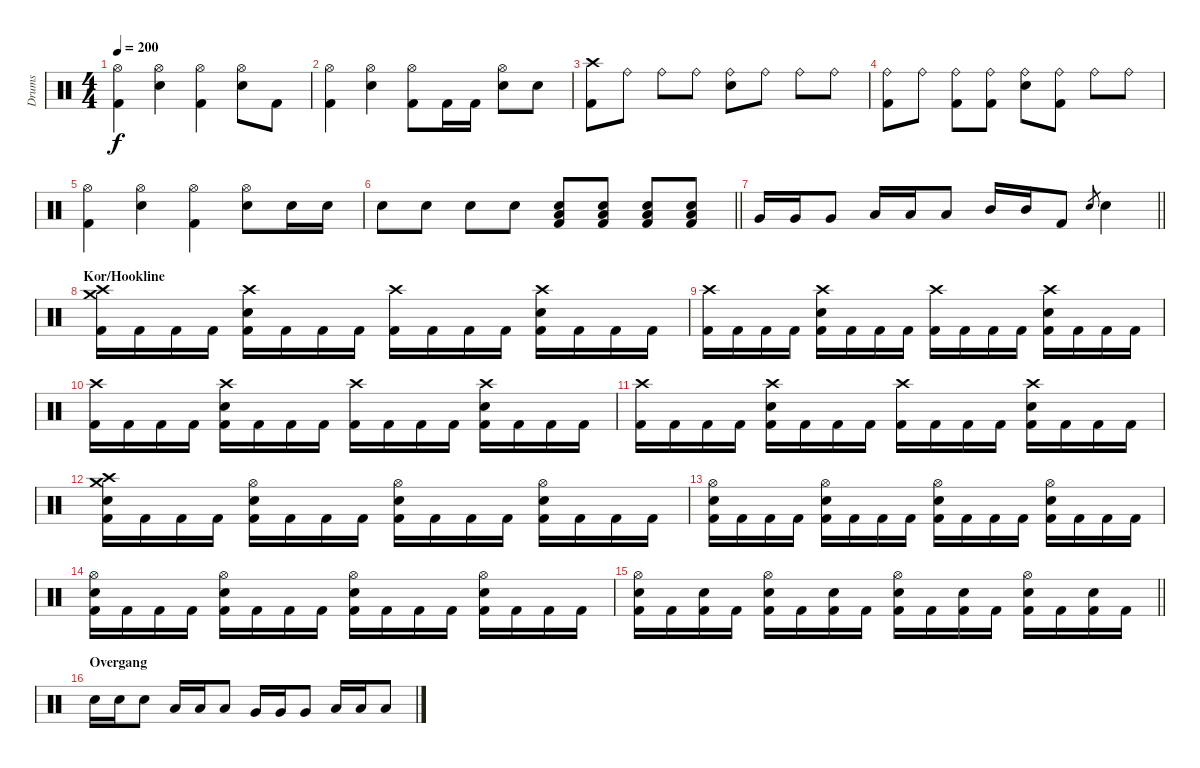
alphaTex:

\track ("Drums" "Drums") {instrument percussion}
\staff {score}
\articulation defaults
\ts (4 4)
\tempo 200
\clef neutral
\ks c
("Hi-Hat (open)" "Kick (hit) 2").4{dy f} ("Hi-Hat (open)" "Snare (hit) 2").4 ("Hi-Hat (open)" "Kick (hit) 2").4 ("Hi-Hat (open)" "Snare (hit) 2").8 "Kick (hit) 2".8 |
("Hi-Hat (open)" "Kick (hit) 2").4 ("Hi-Hat (open)" "Snare (hit) 2").4 ("Hi-Hat (open)" "Kick (hit) 2").8 "Kick (hit) 2".16 "Kick (hit) 2".16 ("Hi-Hat (open)" "Snare (hit) 2").8 "Snare (hit) 2".8 |
("Crash high (hit)" "Kick (hit) 2").8 "Ride (bell)".8 "Ride (bell)".8 "Ride (bell)".8 ("Ride (bell)" "Snare (hit) 2").8 "Ride (bell)".8 "Ride (bell)".8 "Ride (bell)".8 |
("Ride (bell)" "Kick (hit) 2").8 "Ride (bell)".8 ("Ride (bell)" "Kick (hit) 2").8 ("Ride (bell)" "Kick (hit) 2").8 ("Ride (bell)" "Snare (hit) 2").8 ("Ride (bell)" "Kick (hit) 2").8 "Ride (bell)".8 "Ride (bell)".8 |
("Hi-Hat (open)" "Kick (hit) 2").4 ("Hi-Hat (open)" "Snare (hit) 2").4 ("Hi-Hat (open)" "Kick (hit) 2").4 ("Hi-Hat (open)" "Snare (hit) 2").8 "Snare (hit) 2".16 "Snare (hit) 2".16 |
\barLineRight lightlight "Snare (hit) 2".8 "Snare (hit) 2".8 "Snare (hit) 2".8 "Snare (hit) 2".8
("Low Floor Tom (hit)" "Snare (hit) 2" "Kick (hit) 2").8 ("Low Floor Tom (hit)" "Snare (hit) 2" "Kick (hit) 2").8 ("Low Floor Tom (hit)" "Snare (hit) 2" "Kick (hit) 2").8 ("Low Floor Tom (hit)" "Snare (hit) 2" "Kick (hit) 2").8 |
\barLineRight lightlight "Very Low Tom (hit)".16 "Very Low Tom (hit)".16 "Very Low Tom (hit)".8 "Low Tom (hit)".16 "Low Tom (hit)".16 "Low Tom (hit)".8 "Mid Tom (hit)".16 "Mid Tom (hit)".16 "Kick (hit) 2".8 "Snare (hit) 2".8{gr} "Snare (hit) 2".4
|
\section ("" "Kor/Hookline")
("Crash medium (hit)" "Crash high (hit)" "Kick (hit) 2").16 "Kick (hit) 2".16 "Kick (hit) 2".16 "Kick (hit) 2".16 ("Crash high (hit)" "Snare (hit) 2" "Kick (hit) 2").16 "Kick (hit) 2".16 "Kick (hit) 2".16 "Kick (hit) 2".16 ("Crash high (hit)" "Kick (hit) 2").16 "Kick (hit) 2".16 "Kick (hit) 2".16 "Kick (hit) 2".16 ("Crash high (hit)" "Snare (hit) 2" "Kick (hit) 2").16 "Kick (hit) 2".16 "Kick (hit) 2".16 "Kick (hit) 2".16 |
("Crash high (hit)" "Kick (hit) 2").16 "Kick (hit) 2".16 "Kick (hit) 2".16 "Kick (hit) 2".16 ("Crash high (hit)" "Snare (hit) 2" "Kick (hit) 2").16 "Kick (hit) 2".16 "Kick (hit) 2".16 "Kick (hit) 2".16 ("Crash high (hit)" "Kick (hit) 2").16 "Kick (hit) 2".16 "Kick (hit) 2".16 "Kick (hit) 2".16 ("Crash high (hit)" "Snare (hit) 2" "Kick (hit) 2").16 "Kick (hit) 2".16 "Kick (hit) 2".16 "Kick (hit) 2".16 |
("Crash high (hit)" "Kick (hit) 2").16 "Kick (hit) 2".16 "Kick (hit) 2".16 "Kick (hit) 2".16 ("Crash high (hit)" "Snare (hit) 2" "Kick (hit) 2").16 "Kick (hit) 2".16 "Kick (hit) 2".16 "Kick (hit) 2".16 ("Crash high (hit)" "Kick (hit) 2").16 "Kick (hit) 2".16 "Kick (hit) 2".16 "Kick (hit) 2".16 ("Crash high (hit)" "Snare (hit) 2" "Kick (hit) 2").16 "Kick (hit) 2".16 "Kick (hit) 2".16 "Kick (hit) 2".16 |
("Crash high (hit)" "Kick (hit) 2").16 "Kick (hit) 2".16 "Kick (hit) 2".16 "Kick (hit) 2".16 ("Crash high (hit)" "Snare (hit) 2" "Kick (hit) 2").16 "Kick (hit) 2".16 "Kick (hit) 2".16 "Kick (hit) 2".16 ("Crash high (hit)" "Kick (hit) 2").16 "Kick (hit) 2".16 "Kick (hit) 2".16 "Kick (hit) 2".16 ("Crash high (hit)" "Snare (hit) 2" "Kick (hit) 2").16 "Kick (hit) 2".16 "Kick (hit) 2".16 "Kick (hit) 2".16 |
("Crash medium (hit)" "Crash high (hit)" "Snare (hit) 2" "Kick (hit) 2").16 "Kick (hit) 2".16 "Kick (hit) 2".16 "Kick (hit) 2".16 ("Hi-Hat (open)" "Snare (hit) 2" "Kick (hit) 2").16 "Kick (hit) 2".16 "Kick (hit) 2".16 "Kick (hit) 2".16 ("Hi-Hat (open)" "Snare (hit) 2" "Kick (hit) 2").16 "Kick (hit) 2".16 "Kick (hit) 2".16 "Kick (hit) 2".16 ("Hi-Hat (open)" "Snare (hit) 2" "Kick (hit) 2").16 "Kick (hit) 2".16 "Kick (hit) 2".16 "Kick (hit) 2".16 |
("Hi-Hat (open)" "Snare (hit) 2" "Kick (hit) 2").16 "Kick (hit) 2".16 "Kick (hit) 2".16 "Kick (hit) 2".16 ("Hi-Hat (open)" "Snare (hit) 2" "Kick (hit) 2").16 "Kick (hit) 2".16 "Kick (hit) 2".16 "Kick (hit) 2".16 ("Hi-Hat (open)" "Snare (hit) 2" "Kick (hit) 2").16 "Kick (hit) 2".16 "Kick (hit) 2".16 "Kick (hit) 2".16 ("Hi-Hat (open)" "Snare (hit) 2" "Kick (hit) 2").16 "Kick (hit) 2".16 "Kick (hit) 2".16 "Kick (hit) 2".16 |
("Hi-Hat (open)" "Snare (hit) 2" "Kick (hit) 2").16 "Kick (hit) 2".16 "Kick (hit) 2".16 "Kick (hit) 2".16 ("Hi-Hat (open)" "Snare (hit) 2" "Kick (hit) 2").16 "Kick (hit) 2".16 "Kick (hit) 2".16 "Kick (hit) 2".16 ("Hi-Hat (open)" "Snare (hit) 2" "Kick (hit) 2").16 "Kick (hit) 2".16 "Kick (hit) 2".16 "Kick (hit) 2".16 ("Hi-Hat (open)" "Snare (hit) 2" "Kick (hit) 2").16 "Kick (hit) 2".16 "Kick (hit) 2".16 "Kick (hit) 2".16 |
\barLineRight lightlight
("Hi-Hat (open)" "Snare (hit) 2" "Kick (hit) 2").16 "Kick (hit) 2".16 ("Snare (hit) 2" "Kick (hit) 2").16 "Kick (hit) 2".16 ("Hi-Hat (open)" "Snare (hit) 2" "Kick (hit) 2").16 "Kick (hit) 2".16 ("Snare (hit) 2" "Kick (hit) 2").16 "Kick (hit) 2".16 ("Hi-Hat (open)" "Snare (hit) 2" "Kick (hit) 2").16 "Kick (hit) 2".16 ("Snare (hit) 2" "Kick (hit) 2").16 "Kick (hit) 2".16 ("Hi-Hat (open)" "Snare (hit) 2" "Kick (hit) 2").16 "Kick (hit) 2".16 ("Snare (hit) 2" "Kick (hit) 2").16 "Kick (hit) 2".16 |
\section ("" "Overgang")
"Snare (hit) 2".16 "Snare (hit) 2".16 "Snare (hit) 2".8 "Low Tom (hit)".16 "Low Tom (hit)".16 "Low Tom (hit)".8 "Very Low Tom (hit)".16 "Very Low Tom (hit)".16 "Very Low Tom (hit)".8 "Low Floor Tom (hit)".16 "Low Floor Tom (hit)".16 "Low Floor Tom (hit)".8
